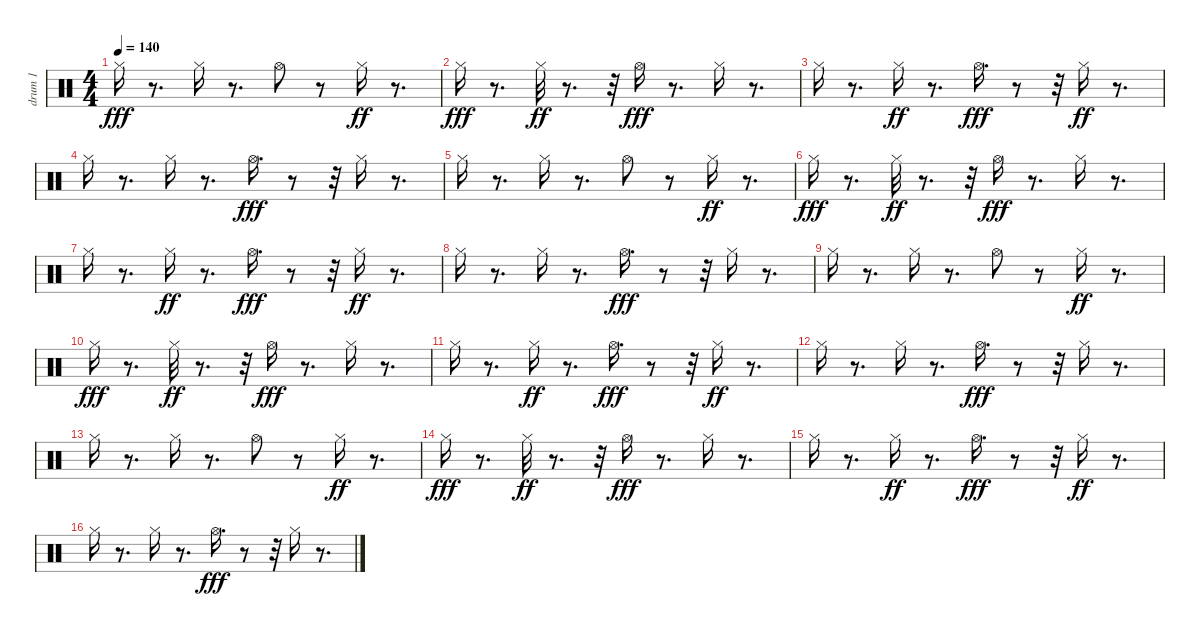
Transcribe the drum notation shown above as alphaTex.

\track ("drum 1" "drum 1") {instrument percussion}
\staff {score}
\articulation defaults
\ts (4 4)
\tempo 140
\clef neutral
\ks c "Hi-Hat (closed)".16{dy fff}
r.8{d} "Hi-Hat (closed)".16 r.8{d} "Hi-Hat (open)".8 r.8 "Hi-Hat (closed)".16{dy ff} r.8{d} |
"Hi-Hat (closed)".16{dy fff} r.8{d} "Hi-Hat (closed)".32{dy ff} r.8{d} r.32 "Hi-Hat (open)".16{dy fff} r.8{d} "Hi-Hat (closed)".16 r.8{d} |
"Hi-Hat (closed)".16 r.8{d} "Hi-Hat (closed)".16{dy ff} r.8{d} "Hi-Hat (open)".16{d dy fff} r.8 r.32 "Hi-Hat (closed)".16{dy ff} r.8{d} |
"Hi-Hat (closed)".16 r.8{d} "Hi-Hat (closed)".16 r.8{d} "Hi-Hat (open)".16{d dy fff} r.8 r.32 "Hi-Hat (closed)".16 r.8{d} |
"Hi-Hat (closed)".16 r.8{d} "Hi-Hat (closed)".16 r.8{d} "Hi-Hat (open)".8 r.8 "Hi-Hat (closed)".16{dy ff} r.8{d} |
"Hi-Hat (closed)".16{dy fff} r.8{d} "Hi-Hat (closed)".32{dy ff} r.8{d} r.32 "Hi-Hat (open)".16{dy fff} r.8{d} "Hi-Hat (closed)".16 r.8{d} |
"Hi-Hat (closed)".16 r.8{d} "Hi-Hat (closed)".16{dy ff} r.8{d} "Hi-Hat (open)".16{d dy fff} r.8 r.32 "Hi-Hat (closed)".16{dy ff} r.8{d} |
"Hi-Hat (closed)".16 r.8{d} "Hi-Hat (closed)".16 r.8{d} "Hi-Hat (open)".16{d dy fff} r.8 r.32 "Hi-Hat (closed)".16 r.8{d} |
"Hi-Hat (closed)".16 r.8{d} "Hi-Hat (closed)".16 r.8{d} "Hi-Hat (open)".8 r.8 "Hi-Hat (closed)".16{dy ff} r.8{d} |
"Hi-Hat (closed)".16{dy fff} r.8{d} "Hi-Hat (closed)".32{dy ff} r.8{d} r.32 "Hi-Hat (open)".16{dy fff} r.8{d} "Hi-Hat (closed)".16 r.8{d} |
"Hi-Hat (closed)".16 r.8{d} "Hi-Hat (closed)".16{dy ff} r.8{d} "Hi-Hat (open)".16{d dy fff} r.8 r.32 "Hi-Hat (closed)".16{dy ff} r.8{d} |
"Hi-Hat (closed)".16 r.8{d} "Hi-Hat (closed)".16 r.8{d} "Hi-Hat (open)".16{d dy fff} r.8 r.32 "Hi-Hat (closed)".16 r.8{d} |
"Hi-Hat (closed)".16 r.8{d} "Hi-Hat (closed)".16 r.8{d} "Hi-Hat (open)".8 r.8 "Hi-Hat (closed)".16{dy ff} r.8{d} |
"Hi-Hat (closed)".16{dy fff} r.8{d} "Hi-Hat (closed)".32{dy ff} r.8{d} r.32 "Hi-Hat (open)".16{dy fff} r.8{d} "Hi-Hat (closed)".16 r.8{d} |
"Hi-Hat (closed)".16 r.8{d} "Hi-Hat (closed)".16{dy ff} r.8{d} "Hi-Hat (open)".16{d dy fff} r.8 r.32 "Hi-Hat (closed)".16{dy ff} r.8{d} |
"Hi-Hat (closed)".16 r.8{d} "Hi-Hat (closed)".16 r.8{d} "Hi-Hat (open)".16{d dy fff} r.8 r.32 "Hi-Hat (closed)".16 r.8{d}
